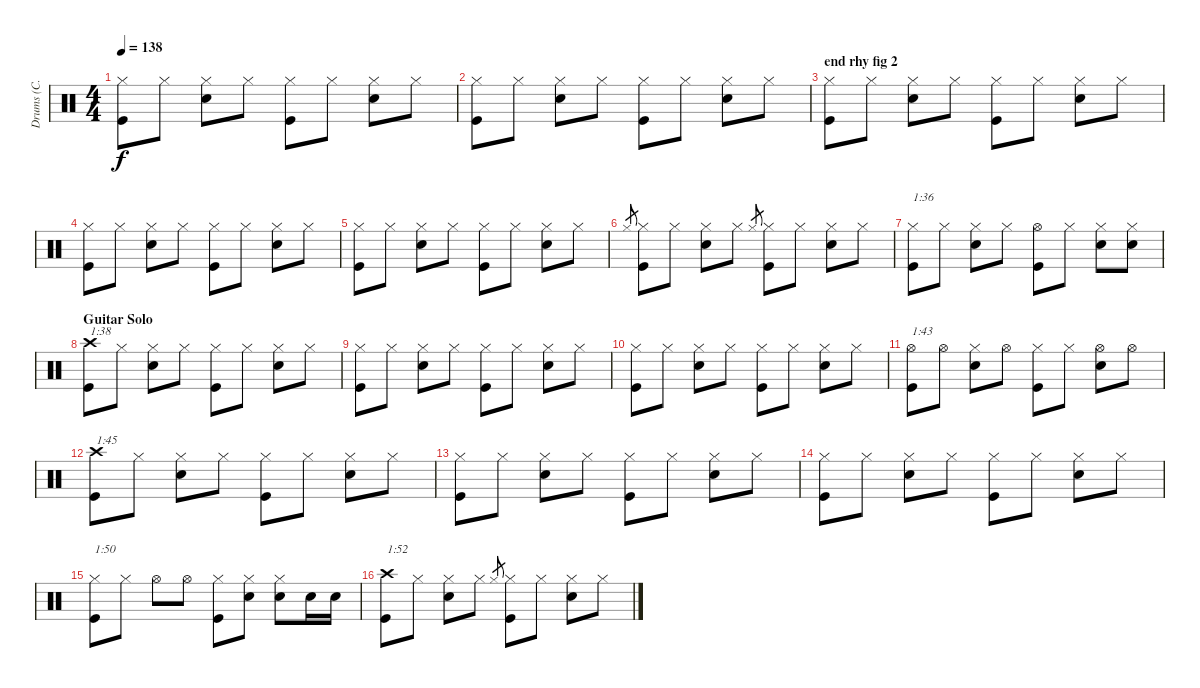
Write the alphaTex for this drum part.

\track ("Drums (C. Watts)" "Drums (C. ") {instrument percussion}
\staff {score}
\articulation defaults
\ts (4 4)
\tempo 138
\clef neutral
\ks c
("Hi-Hat (closed)" "Kick (hit)").8{dy f} "Hi-Hat (closed)".8 ("Hi-Hat (closed)" "Snare (hit) 2").8 "Hi-Hat (closed)".8 ("Hi-Hat (closed)" "Kick (hit)").8 "Hi-Hat (closed)".8 ("Hi-Hat (closed)" "Snare (hit) 2").8 "Hi-Hat (closed)".8 |
("Hi-Hat (closed)" "Kick (hit)").8 "Hi-Hat (closed)".8 ("Hi-Hat (closed)" "Snare (hit) 2").8 "Hi-Hat (closed)".8 ("Hi-Hat (closed)" "Kick (hit)").8 "Hi-Hat (closed)".8 ("Hi-Hat (closed)" "Snare (hit) 2").8 "Hi-Hat (closed)".8 |
\section ("" "end rhy fig 2")
("Hi-Hat (closed)" "Kick (hit)").8 "Hi-Hat (closed)".8 ("Hi-Hat (closed)" "Snare (hit) 2").8 "Hi-Hat (closed)".8 ("Hi-Hat (closed)" "Kick (hit)").8 "Hi-Hat (closed)".8 ("Hi-Hat (closed)" "Snare (hit) 2").8 "Hi-Hat (closed)".8 |
("Hi-Hat (closed)" "Kick (hit)").8 "Hi-Hat (closed)".8 ("Hi-Hat (closed)" "Snare (hit) 2").8 "Hi-Hat (closed)".8 ("Hi-Hat (closed)" "Kick (hit)").8 "Hi-Hat (closed)".8 ("Hi-Hat (closed)" "Snare (hit) 2").8 "Hi-Hat (closed)".8 |
("Hi-Hat (closed)" "Kick (hit)").8 "Hi-Hat (closed)".8 ("Hi-Hat (closed)" "Snare (hit) 2").8 "Hi-Hat (closed)".8 ("Hi-Hat (closed)" "Kick (hit)").8 "Hi-Hat (closed)".8 ("Hi-Hat (closed)" "Snare (hit) 2").8 "Hi-Hat (closed)".8 |
"Hi-Hat (closed)".8{gr} ("Hi-Hat (closed)" "Kick (hit)").8 "Hi-Hat (closed)".8 ("Hi-Hat (closed)" "Snare (hit) 2").8 "Hi-Hat (closed)".8 "Hi-Hat (closed)".8{gr} ("Hi-Hat (closed)" "Kick (hit)").8 "Hi-Hat (closed)".8 ("Hi-Hat (closed)" "Snare (hit) 2").8 "Hi-Hat (closed)".8 |
("Hi-Hat (closed)" "Kick (hit)").8{txt "1:36"} "Hi-Hat (closed)".8 ("Hi-Hat (closed)" "Snare (hit) 2").8 "Hi-Hat (closed)".8 ("Hi-Hat (open)" "Kick (hit)").8 "Hi-Hat (closed)".8 ("Hi-Hat (closed)" "Snare (hit) 2").8 ("Hi-Hat (closed)" "Snare (hit) 2").8 |
\section ("" "Guitar Solo")
("Crash high (hit)" "Kick (hit)").8{txt "1:38"} "Hi-Hat (closed)".8 ("Hi-Hat (closed)" "Snare (hit) 2").8 "Hi-Hat (closed)".8 ("Hi-Hat (closed)" "Kick (hit)").8 "Hi-Hat (closed)".8 ("Hi-Hat (closed)" "Snare (hit) 2").8 "Hi-Hat (closed)".8 |
("Hi-Hat (closed)" "Kick (hit)").8 "Hi-Hat (closed)".8 ("Hi-Hat (closed)" "Snare (hit) 2").8 "Hi-Hat (closed)".8 ("Hi-Hat (closed)" "Kick (hit)").8 "Hi-Hat (closed)".8 ("Hi-Hat (closed)" "Snare (hit) 2").8 "Hi-Hat (closed)".8 |
("Hi-Hat (closed)" "Kick (hit)").8 "Hi-Hat (closed)".8 ("Hi-Hat (closed)" "Snare (hit) 2").8 "Hi-Hat (closed)".8 ("Hi-Hat (closed)" "Kick (hit)").8 "Hi-Hat (closed)".8 ("Hi-Hat (closed)" "Snare (hit) 2").8 "Hi-Hat (closed)".8 |
("Hi-Hat (open)" "Kick (hit)").8{txt "1:43"} "Hi-Hat (open)".8 ("Hi-Hat (closed)" "Snare (hit) 2").8 "Hi-Hat (open)".8 ("Hi-Hat (closed)" "Kick (hit)").8 "Hi-Hat (closed)".8 ("Hi-Hat (open)" "Snare (hit) 2").8 "Hi-Hat (open)".8 |
("Crash high (hit)" "Kick (hit)").8{txt "1:45"} "Hi-Hat (closed)".8 ("Hi-Hat (closed)" "Snare (hit) 2").8 "Hi-Hat (closed)".8 ("Hi-Hat (closed)" "Kick (hit)").8 "Hi-Hat (closed)".8 ("Hi-Hat (closed)" "Snare (hit) 2").8 "Hi-Hat (closed)".8 |
("Hi-Hat (closed)" "Kick (hit)").8 "Hi-Hat (closed)".8 ("Hi-Hat (closed)" "Snare (hit) 2").8 "Hi-Hat (closed)".8 ("Hi-Hat (closed)" "Kick (hit)").8 "Hi-Hat (closed)".8 ("Hi-Hat (closed)" "Snare (hit) 2").8 "Hi-Hat (closed)".8 |
("Hi-Hat (closed)" "Kick (hit)").8 "Hi-Hat (closed)".8 ("Hi-Hat (closed)" "Snare (hit) 2").8 "Hi-Hat (closed)".8 ("Hi-Hat (closed)" "Kick (hit)").8 "Hi-Hat (closed)".8 ("Hi-Hat (closed)" "Snare (hit) 2").8 "Hi-Hat (closed)".8 |
("Hi-Hat (closed)" "Kick (hit)").8{txt "1:50"} "Hi-Hat (closed)".8 "Hi-Hat (open)".8 "Hi-Hat (open)".8 ("Hi-Hat (closed)" "Kick (hit)").8 ("Hi-Hat (closed)" "Snare (hit) 2").8 ("Hi-Hat (closed)" "Snare (hit) 2").8 "Snare (hit) 2".16 "Snare (hit) 2".16 |
("Crash high (hit)" "Kick (hit)").8{txt "1:52"} "Hi-Hat (closed)".8 ("Hi-Hat (closed)" "Snare (hit) 2").8 "Hi-Hat (closed)".8 "Hi-Hat (closed)".8{gr} ("Hi-Hat (closed)" "Kick (hit)").8 "Hi-Hat (closed)".8 ("Hi-Hat (closed)" "Snare (hit) 2").8 "Hi-Hat (closed)".8
